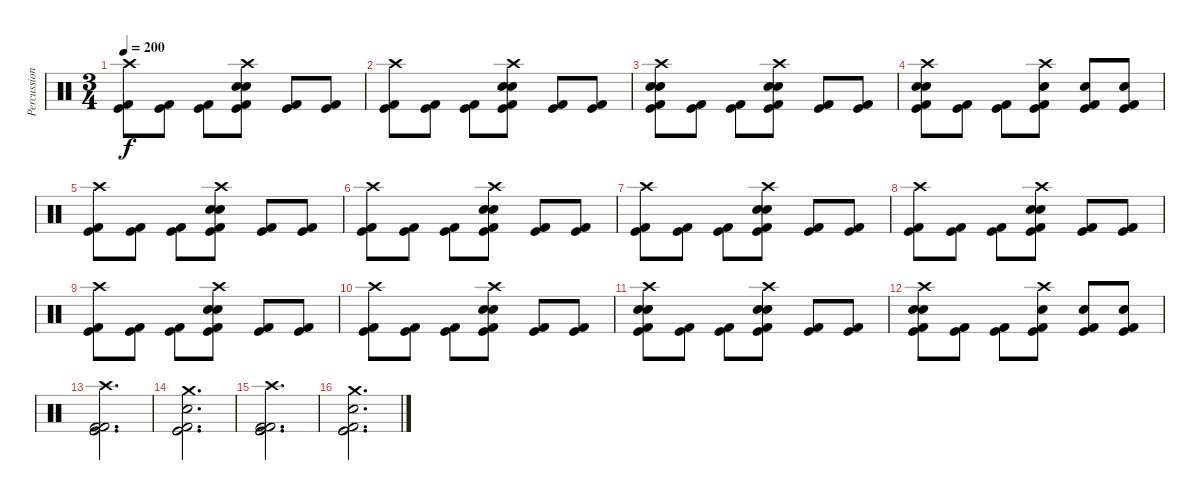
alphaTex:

\track ("Percussion" "Percussion") {instrument percussion}
\staff {score}
\articulation defaults
\ts (3 4)
\tempo 200
\clef neutral
\ks c
("Crash high (hit)" "Kick (hit) 2" "Kick (hit)").8{dy f} ("Kick (hit) 2" "Kick (hit)").8 ("Kick (hit) 2" "Kick (hit)").8 ("Crash high (hit)" "Electric Snare (hit)" "Electric Snare (hit)" "Kick (hit) 2" "Kick (hit)").8 ("Kick (hit) 2" "Kick (hit)").8 ("Kick (hit) 2" "Kick (hit)").8 |
("Crash high (hit)" "Kick (hit) 2" "Kick (hit)").8 ("Kick (hit) 2" "Kick (hit)").8 ("Kick (hit) 2" "Kick (hit)").8 ("Crash high (hit)" "Electric Snare (hit)" "Electric Snare (hit)" "Kick (hit) 2" "Kick (hit)").8 ("Kick (hit) 2" "Kick (hit)").8 ("Kick (hit) 2" "Kick (hit)").8 |
("Crash high (hit)" "Electric Snare (hit)" "Electric Snare (hit)" "Kick (hit) 2" "Kick (hit)").8 ("Kick (hit) 2" "Kick (hit)").8 ("Kick (hit) 2" "Kick (hit)").8 ("Crash high (hit)" "Electric Snare (hit)" "Electric Snare (hit)" "Kick (hit) 2" "Kick (hit)").8 ("Kick (hit) 2" "Kick (hit)").8 ("Kick (hit) 2" "Kick (hit)").8 |
("Crash high (hit)" "Electric Snare (hit)" "Electric Snare (hit)" "Kick (hit) 2" "Kick (hit)").8 ("Kick (hit) 2" "Kick (hit)").8 ("Kick (hit) 2" "Kick (hit)").8 ("Crash high (hit)" "Electric Snare (hit)" "Kick (hit) 2" "Kick (hit)").8 ("Electric Snare (hit)" "Kick (hit) 2" "Kick (hit)").8 ("Electric Snare (hit)" "Kick (hit) 2" "Kick (hit)").8 |
("Crash high (hit)" "Kick (hit) 2" "Kick (hit)").8 ("Kick (hit) 2" "Kick (hit)").8 ("Kick (hit) 2" "Kick (hit)").8 ("Crash high (hit)" "Electric Snare (hit)" "Electric Snare (hit)" "Kick (hit) 2" "Kick (hit)").8 ("Kick (hit) 2" "Kick (hit)").8 ("Kick (hit) 2" "Kick (hit)").8 |
("Crash high (hit)" "Kick (hit) 2" "Kick (hit)").8 ("Kick (hit) 2" "Kick (hit)").8 ("Kick (hit) 2" "Kick (hit)").8 ("Crash high (hit)" "Electric Snare (hit)" "Electric Snare (hit)" "Kick (hit) 2" "Kick (hit)").8 ("Kick (hit) 2" "Kick (hit)").8 ("Kick (hit) 2" "Kick (hit)").8 |
("Crash high (hit)" "Kick (hit) 2" "Kick (hit)").8 ("Kick (hit) 2" "Kick (hit)").8 ("Kick (hit) 2" "Kick (hit)").8 ("Crash high (hit)" "Electric Snare (hit)" "Electric Snare (hit)" "Kick (hit) 2" "Kick (hit)").8 ("Kick (hit) 2" "Kick (hit)").8 ("Kick (hit) 2" "Kick (hit)").8 |
("Crash high (hit)" "Kick (hit) 2" "Kick (hit)").8 ("Kick (hit) 2" "Kick (hit)").8 ("Kick (hit) 2" "Kick (hit)").8 ("Crash high (hit)" "Electric Snare (hit)" "Electric Snare (hit)" "Kick (hit) 2" "Kick (hit)").8 ("Kick (hit) 2" "Kick (hit)").8 ("Kick (hit) 2" "Kick (hit)").8 |
("Crash high (hit)" "Kick (hit) 2" "Kick (hit)").8 ("Kick (hit) 2" "Kick (hit)").8 ("Kick (hit) 2" "Kick (hit)").8 ("Crash high (hit)" "Electric Snare (hit)" "Electric Snare (hit)" "Kick (hit) 2" "Kick (hit)").8 ("Kick (hit) 2" "Kick (hit)").8 ("Kick (hit) 2" "Kick (hit)").8 |
("Crash high (hit)" "Kick (hit) 2" "Kick (hit)").8 ("Kick (hit) 2" "Kick (hit)").8 ("Kick (hit) 2" "Kick (hit)").8 ("Crash high (hit)" "Electric Snare (hit)" "Electric Snare (hit)" "Kick (hit) 2" "Kick (hit)").8 ("Kick (hit) 2" "Kick (hit)").8 ("Kick (hit) 2" "Kick (hit)").8 |
("Crash high (hit)" "Electric Snare (hit)" "Electric Snare (hit)" "Kick (hit) 2" "Kick (hit)").8 ("Kick (hit) 2" "Kick (hit)").8 ("Kick (hit) 2" "Kick (hit)").8 ("Crash high (hit)" "Electric Snare (hit)" "Electric Snare (hit)" "Kick (hit) 2" "Kick (hit)").8 ("Kick (hit) 2" "Kick (hit)").8 ("Kick (hit) 2" "Kick (hit)").8 |
("Crash high (hit)" "Electric Snare (hit)" "Electric Snare (hit)" "Kick (hit) 2" "Kick (hit)").8 ("Kick (hit) 2" "Kick (hit)").8 ("Kick (hit) 2" "Kick (hit)").8 ("Crash high (hit)" "Electric Snare (hit)" "Kick (hit) 2" "Kick (hit)").8 ("Electric Snare (hit)" "Kick (hit) 2" "Kick (hit)").8 ("Electric Snare (hit)" "Kick (hit) 2" "Kick (hit)").8 |
("Crash high (hit)" "Kick (hit) 2" "Kick (hit)" "Kick (hit) 2" "Kick (hit)").2{d} |
("Electric Snare (hit)" "Crash medium (hit)" "Kick (hit)" "Kick (hit) 2" "Kick (hit)").2{d} |
("Crash high (hit)" "Kick (hit) 2" "Kick (hit)" "Kick (hit) 2" "Kick (hit)").2{d} |
("Electric Snare (hit)" "Crash medium (hit)" "Kick (hit)" "Kick (hit) 2" "Kick (hit)").2{d}
